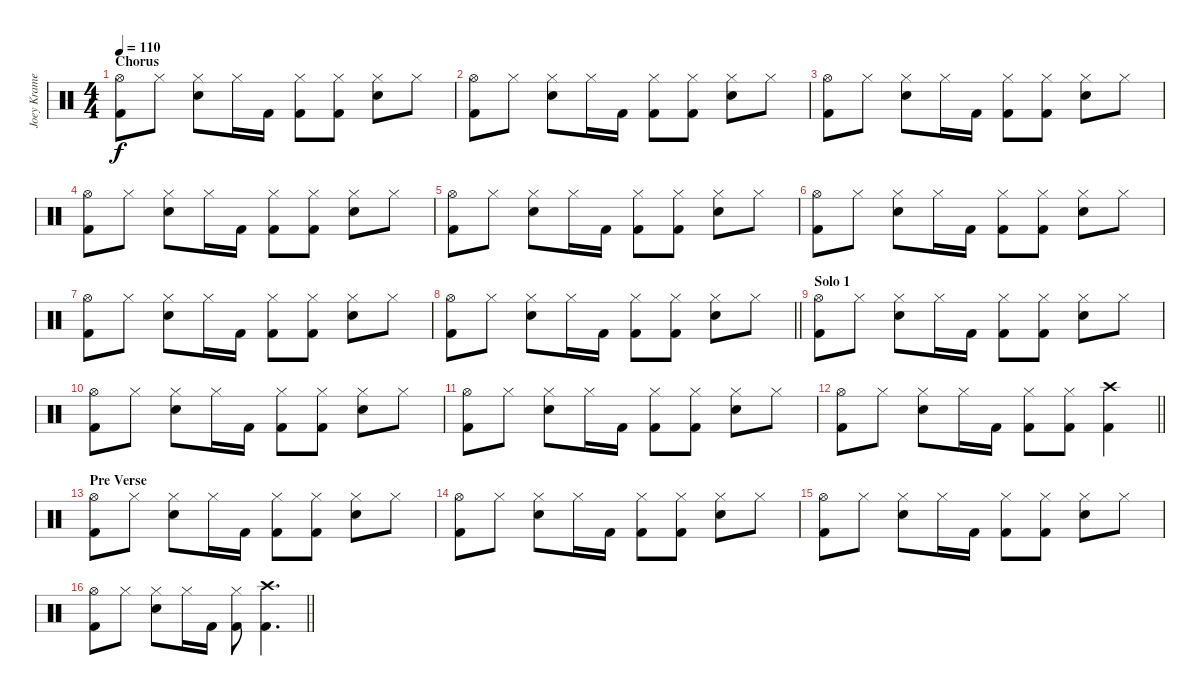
\track ("Joey Kramer - Drums" "Joey Krame") {instrument percussion}
\staff {score}
\articulation defaults
\ts (4 4)
\section ("" "Chorus")
\tempo 110
\clef neutral
\ks c
("Hi-Hat (open)" "Kick (hit) 2").8{dy f} "Hi-Hat (closed)".8 ("Hi-Hat (closed)" "Electric Snare (hit)").8 "Hi-Hat (closed)".16 "Kick (hit) 2".16 ("Hi-Hat (closed)" "Kick (hit) 2").8 ("Hi-Hat (closed)" "Kick (hit) 2").8 ("Hi-Hat (closed)" "Electric Snare (hit)").8 "Hi-Hat (closed)".8 |
("Hi-Hat (open)" "Kick (hit) 2").8 "Hi-Hat (closed)".8 ("Hi-Hat (closed)" "Electric Snare (hit)").8 "Hi-Hat (closed)".16 "Kick (hit) 2".16 ("Hi-Hat (closed)" "Kick (hit) 2").8 ("Hi-Hat (closed)" "Kick (hit) 2").8 ("Hi-Hat (closed)" "Electric Snare (hit)").8 "Hi-Hat (closed)".8 |
("Hi-Hat (open)" "Kick (hit) 2").8 "Hi-Hat (closed)".8 ("Hi-Hat (closed)" "Electric Snare (hit)").8 "Hi-Hat (closed)".16 "Kick (hit) 2".16 ("Hi-Hat (closed)" "Kick (hit) 2").8 ("Hi-Hat (closed)" "Kick (hit) 2").8 ("Hi-Hat (closed)" "Electric Snare (hit)").8 "Hi-Hat (closed)".8 |
("Hi-Hat (open)" "Kick (hit) 2").8 "Hi-Hat (closed)".8 ("Hi-Hat (closed)" "Electric Snare (hit)").8 "Hi-Hat (closed)".16 "Kick (hit) 2".16 ("Hi-Hat (closed)" "Kick (hit) 2").8 ("Hi-Hat (closed)" "Kick (hit) 2").8 ("Hi-Hat (closed)" "Electric Snare (hit)").8 "Hi-Hat (closed)".8 |
("Hi-Hat (open)" "Kick (hit) 2").8 "Hi-Hat (closed)".8 ("Hi-Hat (closed)" "Electric Snare (hit)").8 "Hi-Hat (closed)".16 "Kick (hit) 2".16 ("Hi-Hat (closed)" "Kick (hit) 2").8 ("Hi-Hat (closed)" "Kick (hit) 2").8 ("Hi-Hat (closed)" "Electric Snare (hit)").8 "Hi-Hat (closed)".8 |
("Hi-Hat (open)" "Kick (hit) 2").8 "Hi-Hat (closed)".8 ("Hi-Hat (closed)" "Electric Snare (hit)").8 "Hi-Hat (closed)".16 "Kick (hit) 2".16 ("Hi-Hat (closed)" "Kick (hit) 2").8 ("Hi-Hat (closed)" "Kick (hit) 2").8 ("Hi-Hat (closed)" "Electric Snare (hit)").8 "Hi-Hat (closed)".8 |
("Hi-Hat (open)" "Kick (hit) 2").8 "Hi-Hat (closed)".8 ("Hi-Hat (closed)" "Electric Snare (hit)").8 "Hi-Hat (closed)".16 "Kick (hit) 2".16 ("Hi-Hat (closed)" "Kick (hit) 2").8 ("Hi-Hat (closed)" "Kick (hit) 2").8 ("Hi-Hat (closed)" "Electric Snare (hit)").8 "Hi-Hat (closed)".8 |
\barLineRight lightlight
("Hi-Hat (open)" "Kick (hit) 2").8 "Hi-Hat (closed)".8 ("Hi-Hat (closed)" "Electric Snare (hit)").8 "Hi-Hat (closed)".16 "Kick (hit) 2".16 ("Hi-Hat (closed)" "Kick (hit) 2").8 ("Hi-Hat (closed)" "Kick (hit) 2").8 ("Hi-Hat (closed)" "Electric Snare (hit)").8 "Hi-Hat (closed)".8 |
\section ("" "Solo 1")
("Hi-Hat (open)" "Kick (hit) 2").8 "Hi-Hat (closed)".8 ("Hi-Hat (closed)" "Electric Snare (hit)").8 "Hi-Hat (closed)".16 "Kick (hit) 2".16 ("Hi-Hat (closed)" "Kick (hit) 2").8 ("Hi-Hat (closed)" "Kick (hit) 2").8 ("Hi-Hat (closed)" "Electric Snare (hit)").8 "Hi-Hat (closed)".8 |
("Hi-Hat (open)" "Kick (hit) 2").8 "Hi-Hat (closed)".8 ("Hi-Hat (closed)" "Electric Snare (hit)").8 "Hi-Hat (closed)".16 "Kick (hit) 2".16 ("Hi-Hat (closed)" "Kick (hit) 2").8 ("Hi-Hat (closed)" "Kick (hit) 2").8 ("Hi-Hat (closed)" "Electric Snare (hit)").8 "Hi-Hat (closed)".8 |
("Hi-Hat (open)" "Kick (hit) 2").8 "Hi-Hat (closed)".8 ("Hi-Hat (closed)" "Electric Snare (hit)").8 "Hi-Hat (closed)".16 "Kick (hit) 2".16 ("Hi-Hat (closed)" "Kick (hit) 2").8 ("Hi-Hat (closed)" "Kick (hit) 2").8 ("Hi-Hat (closed)" "Electric Snare (hit)").8 "Hi-Hat (closed)".8 |
\barLineRight lightlight
("Hi-Hat (open)" "Kick (hit) 2").8 "Hi-Hat (closed)".8 ("Hi-Hat (closed)" "Electric Snare (hit)").8 "Hi-Hat (closed)".16 "Kick (hit) 2".16 ("Hi-Hat (closed)" "Kick (hit) 2").8 ("Hi-Hat (closed)" "Kick (hit) 2").8 ("Crash high (hit)" "Kick (hit) 2").4 |
\section ("" "Pre Verse")
("Hi-Hat (open)" "Kick (hit) 2").8 "Hi-Hat (closed)".8 ("Hi-Hat (closed)" "Electric Snare (hit)").8 "Hi-Hat (closed)".16 "Kick (hit) 2".16 ("Hi-Hat (closed)" "Kick (hit) 2").8 ("Hi-Hat (closed)" "Kick (hit) 2").8 ("Hi-Hat (closed)" "Electric Snare (hit)").8 "Hi-Hat (closed)".8 |
("Hi-Hat (open)" "Kick (hit) 2").8 "Hi-Hat (closed)".8 ("Hi-Hat (closed)" "Electric Snare (hit)").8 "Hi-Hat (closed)".16 "Kick (hit) 2".16 ("Hi-Hat (closed)" "Kick (hit) 2").8 ("Hi-Hat (closed)" "Kick (hit) 2").8 ("Hi-Hat (closed)" "Electric Snare (hit)").8 "Hi-Hat (closed)".8 |
("Hi-Hat (open)" "Kick (hit) 2").8 "Hi-Hat (closed)".8 ("Hi-Hat (closed)" "Electric Snare (hit)").8 "Hi-Hat (closed)".16 "Kick (hit) 2".16 ("Hi-Hat (closed)" "Kick (hit) 2").8 ("Hi-Hat (closed)" "Kick (hit) 2").8 ("Hi-Hat (closed)" "Electric Snare (hit)").8 "Hi-Hat (closed)".8 |
\barLineRight lightlight
("Hi-Hat (open)" "Kick (hit) 2").8 "Hi-Hat (closed)".8 ("Hi-Hat (closed)" "Electric Snare (hit)").8 "Hi-Hat (closed)".16 "Kick (hit) 2".16 ("Hi-Hat (closed)" "Kick (hit) 2").8 ("Crash high (hit)" "Kick (hit) 2").4{d}
